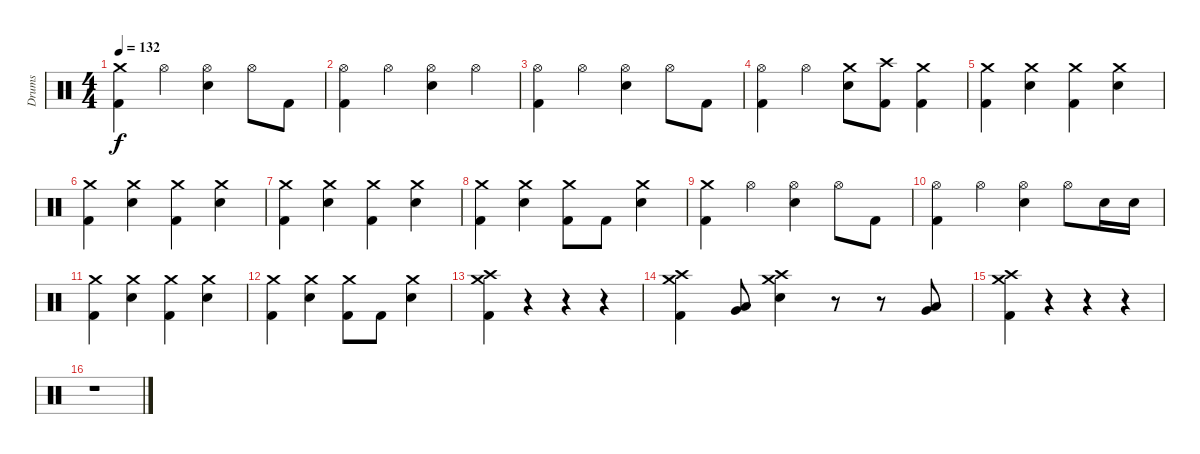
\track ("Drums" "Drums") {instrument percussion}
\staff {score}
\articulation defaults
\ts (4 4)
\tempo 132
\clef neutral
\ks c
("Crash medium (hit)" "Kick (hit) 2").4{dy f} "Hi-Hat (open)".4 ("Hi-Hat (open)" "Electric Snare (hit)").4 "Hi-Hat (open)".8 "Kick (hit) 2".8 |
("Hi-Hat (open)" "Kick (hit) 2").4 "Hi-Hat (open)".4 ("Hi-Hat (open)" "Electric Snare (hit)").4 "Hi-Hat (open)".4 |
("Hi-Hat (open)" "Kick (hit) 2").4 "Hi-Hat (open)".4 ("Hi-Hat (open)" "Electric Snare (hit)").4 "Hi-Hat (open)".8 "Kick (hit) 2".8 |
("Hi-Hat (open)" "Kick (hit) 2").4 "Hi-Hat (open)".4 ("Crash medium (hit)" "Electric Snare (hit)").8 ("Crash high (hit)" "Kick (hit) 2").8 ("Crash medium (hit)" "Kick (hit) 2").4 |
("Crash medium (hit)" "Kick (hit) 2").4 ("Crash medium (hit)" "Electric Snare (hit)").4 ("Crash medium (hit)" "Kick (hit) 2").4 ("Crash medium (hit)" "Electric Snare (hit)").4 |
("Crash medium (hit)" "Kick (hit) 2").4 ("Crash medium (hit)" "Electric Snare (hit)").4 ("Crash medium (hit)" "Kick (hit) 2").4 ("Crash medium (hit)" "Electric Snare (hit)").4 |
("Crash medium (hit)" "Kick (hit) 2").4 ("Crash medium (hit)" "Electric Snare (hit)").4 ("Crash medium (hit)" "Kick (hit) 2").4 ("Crash medium (hit)" "Electric Snare (hit)").4 |
("Crash medium (hit)" "Kick (hit) 2").4 ("Crash medium (hit)" "Electric Snare (hit)").4 ("Crash medium (hit)" "Kick (hit) 2").8 "Kick (hit) 2".8 ("Crash medium (hit)" "Electric Snare (hit)").4 |
("Crash medium (hit)" "Kick (hit) 2").4 "Hi-Hat (open)".4 ("Hi-Hat (open)" "Electric Snare (hit)").4 "Hi-Hat (open)".8 "Kick (hit) 2".8 |
("Hi-Hat (open)" "Kick (hit) 2").4 "Hi-Hat (open)".4 ("Hi-Hat (open)" "Electric Snare (hit)").4 "Hi-Hat (open)".8 "Electric Snare (hit)".16 "Electric Snare (hit)".16 |
("Crash medium (hit)" "Kick (hit) 2").4 ("Crash medium (hit)" "Electric Snare (hit)").4 ("Crash medium (hit)" "Kick (hit) 2").4 ("Crash medium (hit)" "Electric Snare (hit)").4 |
("Crash medium (hit)" "Kick (hit) 2").4 ("Crash medium (hit)" "Electric Snare (hit)").4 ("Crash medium (hit)" "Kick (hit) 2").8 "Kick (hit) 2".8 ("Crash medium (hit)" "Electric Snare (hit)").4 |
("Crash medium (hit)" "Crash high (hit)" "Kick (hit) 2").4 r.4 r.4 r.4 |
("Crash medium (hit)" "Crash high (hit)" "Kick (hit) 2").4 ("Very Low Tom (hit)" "Low Floor Tom (hit)").8 ("Crash medium (hit)" "Crash high (hit)" "Snare (hit)").4 r.8 r.8 ("Very Low Tom (hit)" "Low Floor Tom (hit)").8 |
("Crash medium (hit)" "Crash high (hit)" "Kick (hit) 2").4 r.4 r.4 r.4 |
r.1
